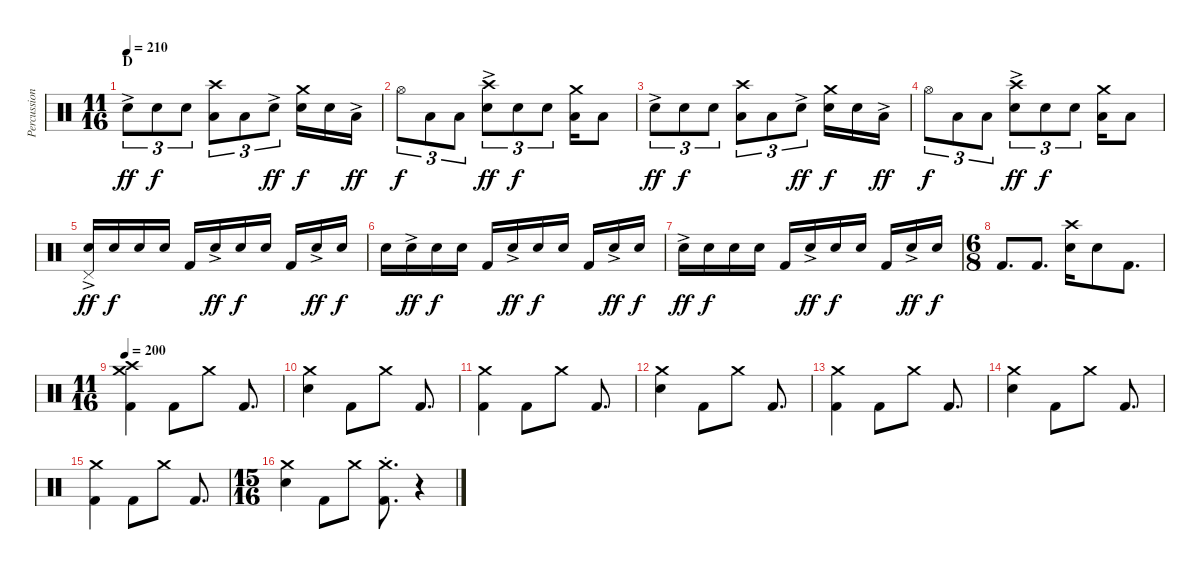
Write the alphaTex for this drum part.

\track ("Percussion" "Percussion") {instrument percussion}
\staff {score}
\articulation defaults
\ts (11 16)
\section ("" "D")
\tempo 210
\clef neutral
\ks c "Electric Snare (hit)"{ac}.8{tu (3 2) dy ff} "Electric Snare (hit)".8{tu (3 2) dy f} "Electric Snare (hit)".8{tu (3 2)}
("Crash high (hit)" "Low Tom (hit)").8{tu (3 2)} "Low Tom (hit)".8{tu (3 2)} "Electric Snare (hit)"{ac}.8{tu (3 2) dy ff} ("Crash medium (hit)" "Electric Snare (hit)").16{dy f} "Electric Snare (hit)".16 "Low Tom (hit)"{ac}.16{dy ff} |
"Hi-Hat (open)".8{tu (3 2) dy f} "Low Tom (hit)".8{tu (3 2)} "Low Tom (hit)".8{tu (3 2)} ("Crash high (hit)" "Electric Snare (hit)"{ac}).8{tu (3 2) dy ff} "Electric Snare (hit)".8{tu (3 2) dy f} "Electric Snare (hit)".8{tu (3 2)} ("Crash medium (hit)" "Low Floor Tom (hit)").16 "Low Floor Tom (hit)".8 |
"Electric Snare (hit)"{ac}.8{tu (3 2) dy ff} "Electric Snare (hit)".8{tu (3 2) dy f} "Electric Snare (hit)".8{tu (3 2)} ("Crash high (hit)" "Low Tom (hit)").8{tu (3 2)} "Low Tom (hit)".8{tu (3 2)} "Electric Snare (hit)"{ac}.8{tu (3 2) dy ff} ("Crash medium (hit)" "Electric Snare (hit)").16{dy f} "Electric Snare (hit)".16 "Low Tom (hit)"{ac}.16{dy ff} |
"Hi-Hat (open)".8{tu (3 2) dy f} "Low Tom (hit)".8{tu (3 2)} "Low Tom (hit)".8{tu (3 2)} ("Crash high (hit)" "Electric Snare (hit)"{ac}).8{tu (3 2) dy ff} "Electric Snare (hit)".8{tu (3 2) dy f} "Electric Snare (hit)".8{tu (3 2)} ("Crash medium (hit)" "Low Floor Tom (hit)").16 "Low Floor Tom (hit)".8 |
("Pedal Hi-Hat (hit)" "Electric Snare (hit)"{ac}).16{dy ff} "Electric Snare (hit)".16{dy f} "Electric Snare (hit)".16 "Electric Snare (hit)".16 "Kick (hit) 2".16 "Electric Snare (hit)"{ac}.16{dy ff} "Electric Snare (hit)".16{dy f} "Electric Snare (hit)".16 "Kick (hit) 2".16 "Electric Snare (hit)"{ac}.16{dy ff} "Electric Snare (hit)".16{dy f} |
"Electric Snare (hit)".16 "Electric Snare (hit)"{ac}.16{dy ff} "Electric Snare (hit)".16{dy f} "Electric Snare (hit)".16 "Kick (hit) 2".16 "Electric Snare (hit)"{ac}.16{dy ff} "Electric Snare (hit)".16{dy f} "Electric Snare (hit)".16 "Kick (hit) 2".16 "Electric Snare (hit)"{ac}.16{dy ff} "Electric Snare (hit)".16{dy f} |
"Electric Snare (hit)"{ac}.16{dy ff} "Electric Snare (hit)".16{dy f} "Electric Snare (hit)".16 "Electric Snare (hit)".16 "Kick (hit) 2".16 "Electric Snare (hit)"{ac}.16{dy ff} "Electric Snare (hit)".16{dy f} "Electric Snare (hit)".16 "Kick (hit) 2".16 "Electric Snare (hit)"{ac}.16{dy ff} "Electric Snare (hit)".16{dy f} |
\ts (6 8)
"Kick (hit) 2".8{d} "Kick (hit) 2".8{d} ("Crash high (hit)" "Electric Snare (hit)").16 "Electric Snare (hit)".8 "Kick (hit) 2".8{d} |
\ts (11 16)
\tempo 200
("Crash medium (hit)" "Crash high (hit)" "Kick (hit) 2").4 "Kick (hit) 2".8 "Crash medium (hit)".8 "Kick (hit) 2".8{d} |
("Crash medium (hit)" "Electric Snare (hit)").4 "Kick (hit) 2".8 "Crash medium (hit)".8 "Kick (hit) 2".8{d} |
("Crash medium (hit)" "Kick (hit) 2").4 "Kick (hit) 2".8 "Crash medium (hit)".8 "Kick (hit) 2".8{d} |
("Crash medium (hit)" "Electric Snare (hit)").4 "Kick (hit) 2".8 "Crash medium (hit)".8 "Kick (hit) 2".8{d} |
("Crash medium (hit)" "Kick (hit) 2").4 "Kick (hit) 2".8 "Crash medium (hit)".8 "Kick (hit) 2".8{d} |
("Crash medium (hit)" "Electric Snare (hit)").4 "Kick (hit) 2".8 "Crash medium (hit)".8 "Kick (hit) 2".8{d} |
("Crash medium (hit)" "Kick (hit) 2").4 "Kick (hit) 2".8 "Crash medium (hit)".8 "Kick (hit) 2".8{d} |
\ts (15 16)
("Crash medium (hit)" "Electric Snare (hit)").4 "Kick (hit) 2".8 "Crash medium (hit)".8 ("Crash medium (hit)"{st} "Kick (hit) 2").8{d} r.4{volume 0}
